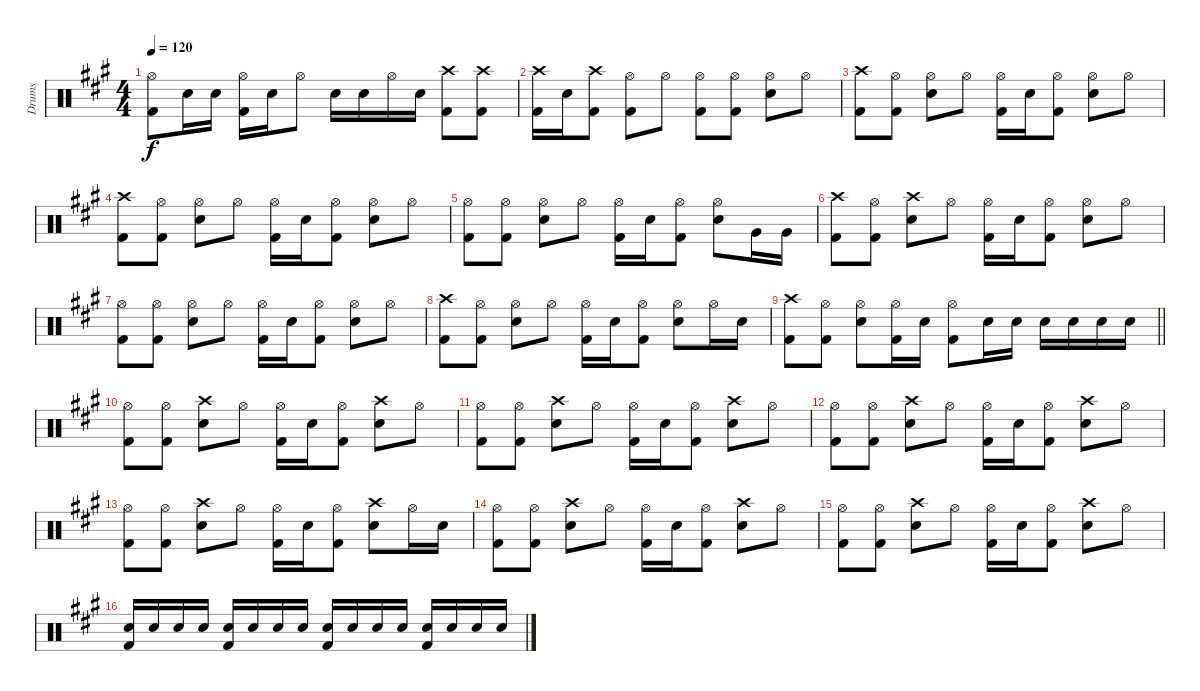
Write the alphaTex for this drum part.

\track ("Drums" "Drums") {instrument percussion}
\staff {score}
\articulation defaults
\ts (4 4)
\tempo 120
\clef neutral
\ks a
("Hi-Hat (open)" "Kick (hit) 2").8{dy f} "Electric Snare (hit)".16 "Electric Snare (hit)".16 ("Hi-Hat (open)" "Kick (hit) 2").16 "Electric Snare (hit)".16 "Hi-Hat (open)".8 "Electric Snare (hit)".16 "Electric Snare (hit)".16 "Hi-Hat (open)".16 "Electric Snare (hit)".16 ("Crash high (hit)" "Kick (hit) 2").8 ("Crash high (hit)" "Kick (hit) 2").8 |
("Crash high (hit)" "Kick (hit) 2").16 "Electric Snare (hit)".16 ("Crash high (hit)" "Kick (hit) 2").8 ("Hi-Hat (open)" "Kick (hit) 2").8 "Hi-Hat (open)".8 ("Hi-Hat (open)" "Kick (hit) 2").8 ("Hi-Hat (open)" "Kick (hit) 2").8 ("Hi-Hat (open)" "Electric Snare (hit)").8 "Hi-Hat (open)".8 |
("Crash high (hit)" "Kick (hit) 2").8 ("Hi-Hat (open)" "Kick (hit) 2").8 ("Hi-Hat (open)" "Electric Snare (hit)").8 "Hi-Hat (open)".8 ("Hi-Hat (open)" "Kick (hit) 2").16 "Electric Snare (hit)".16 ("Hi-Hat (open)" "Kick (hit) 2").8 ("Hi-Hat (open)" "Electric Snare (hit)").8 "Hi-Hat (open)".8 |
("Crash high (hit)" "Kick (hit) 2").8 ("Hi-Hat (open)" "Kick (hit) 2").8 ("Hi-Hat (open)" "Electric Snare (hit)").8 "Hi-Hat (open)".8 ("Hi-Hat (open)" "Kick (hit) 2").16 "Electric Snare (hit)".16 ("Hi-Hat (open)" "Kick (hit) 2").8 ("Hi-Hat (open)" "Electric Snare (hit)").8 "Hi-Hat (open)".8 |
("Hi-Hat (open)" "Kick (hit) 2").8 ("Hi-Hat (open)" "Kick (hit) 2").8 ("Hi-Hat (open)" "Electric Snare (hit)").8 "Hi-Hat (open)".8 ("Hi-Hat (open)" "Kick (hit) 2").16 "Electric Snare (hit)".16 ("Hi-Hat (open)" "Kick (hit) 2").8 ("Hi-Hat (open)" "Electric Snare (hit)").8 "Very Low Tom (hit)".16 "Very Low Tom (hit)".16 |
("Crash high (hit)" "Kick (hit) 2").8 ("Hi-Hat (open)" "Kick (hit) 2").8 ("Crash high (hit)" "Electric Snare (hit)").8 "Hi-Hat (open)".8 ("Hi-Hat (open)" "Kick (hit) 2").16 "Electric Snare (hit)".16 ("Hi-Hat (open)" "Kick (hit) 2").8 ("Hi-Hat (open)" "Electric Snare (hit)").8 "Hi-Hat (open)".8 |
("Hi-Hat (open)" "Kick (hit) 2").8 ("Hi-Hat (open)" "Kick (hit) 2").8 ("Hi-Hat (open)" "Electric Snare (hit)").8 "Hi-Hat (open)".8 ("Hi-Hat (open)" "Kick (hit) 2").16 "Electric Snare (hit)".16 ("Hi-Hat (open)" "Kick (hit) 2").8 ("Hi-Hat (open)" "Electric Snare (hit)").8 "Hi-Hat (open)".8 |
("Crash high (hit)" "Kick (hit) 2").8 ("Hi-Hat (open)" "Kick (hit) 2").8 ("Hi-Hat (open)" "Electric Snare (hit)").8 "Hi-Hat (open)".8 ("Hi-Hat (open)" "Kick (hit) 2").16 "Electric Snare (hit)".16 ("Hi-Hat (open)" "Kick (hit) 2").8 ("Hi-Hat (open)" "Electric Snare (hit)").8 "Hi-Hat (open)".16 "Electric Snare (hit)".16 |
\barLineRight lightlight
("Crash high (hit)" "Kick (hit) 2").8 ("Hi-Hat (open)" "Kick (hit) 2").8 ("Hi-Hat (open)" "Electric Snare (hit)").8 ("Hi-Hat (open)" "Kick (hit) 2").16 "Electric Snare (hit)".16 ("Hi-Hat (open)" "Kick (hit) 2").8 "Electric Snare (hit)".16 "Electric Snare (hit)".16 "Electric Snare (hit)".16 "Electric Snare (hit)".16 "Electric Snare (hit)".16 "Electric Snare (hit)".16 |
("Hi-Hat (open)" "Kick (hit) 2").8 ("Hi-Hat (open)" "Kick (hit) 2").8 ("Crash high (hit)" "Electric Snare (hit)").8 "Hi-Hat (open)".8 ("Hi-Hat (open)" "Kick (hit) 2").16 "Electric Snare (hit)".16 ("Hi-Hat (open)" "Kick (hit) 2").8 ("Crash high (hit)" "Electric Snare (hit)").8 "Hi-Hat (open)".8 |
("Hi-Hat (open)" "Kick (hit) 2").8 ("Hi-Hat (open)" "Kick (hit) 2").8 ("Crash high (hit)" "Electric Snare (hit)").8 "Hi-Hat (open)".8 ("Hi-Hat (open)" "Kick (hit) 2").16 "Electric Snare (hit)".16 ("Hi-Hat (open)" "Kick (hit) 2").8 ("Crash high (hit)" "Electric Snare (hit)").8 "Hi-Hat (open)".8 |
("Hi-Hat (open)" "Kick (hit) 2").8 ("Hi-Hat (open)" "Kick (hit) 2").8 ("Crash high (hit)" "Electric Snare (hit)").8 "Hi-Hat (open)".8 ("Hi-Hat (open)" "Kick (hit) 2").16 "Electric Snare (hit)".16 ("Hi-Hat (open)" "Kick (hit) 2").8 ("Crash high (hit)" "Electric Snare (hit)").8 "Hi-Hat (open)".8 |
("Hi-Hat (open)" "Kick (hit) 2").8 ("Hi-Hat (open)" "Kick (hit) 2").8 ("Crash high (hit)" "Electric Snare (hit)").8 "Hi-Hat (open)".8 ("Hi-Hat (open)" "Kick (hit) 2").16 "Electric Snare (hit)".16 ("Hi-Hat (open)" "Kick (hit) 2").8 ("Crash high (hit)" "Electric Snare (hit)").8 "Hi-Hat (open)".16 "Electric Snare (hit)".16 |
("Hi-Hat (open)" "Kick (hit) 2").8 ("Hi-Hat (open)" "Kick (hit) 2").8 ("Crash high (hit)" "Electric Snare (hit)").8 "Hi-Hat (open)".8 ("Hi-Hat (open)" "Kick (hit) 2").16 "Electric Snare (hit)".16 ("Hi-Hat (open)" "Kick (hit) 2").8 ("Crash high (hit)" "Electric Snare (hit)").8 "Hi-Hat (open)".8 |
("Hi-Hat (open)" "Kick (hit) 2").8 ("Hi-Hat (open)" "Kick (hit) 2").8 ("Crash high (hit)" "Electric Snare (hit)").8 "Hi-Hat (open)".8 ("Hi-Hat (open)" "Kick (hit) 2").16 "Electric Snare (hit)".16 ("Hi-Hat (open)" "Kick (hit) 2").8 ("Crash high (hit)" "Electric Snare (hit)").8 "Hi-Hat (open)".8 |
("Electric Snare (hit)" "Kick (hit) 2").16 "Electric Snare (hit)".16 "Electric Snare (hit)".16 "Electric Snare (hit)".16 ("Electric Snare (hit)" "Kick (hit) 2").16 "Electric Snare (hit)".16 "Electric Snare (hit)".16 "Electric Snare (hit)".16 ("Electric Snare (hit)" "Kick (hit) 2").16 "Electric Snare (hit)".16 "Electric Snare (hit)".16 "Electric Snare (hit)".16 ("Electric Snare (hit)" "Kick (hit) 2").16 "Electric Snare (hit)".16 "Electric Snare (hit)".16 "Electric Snare (hit)".16
